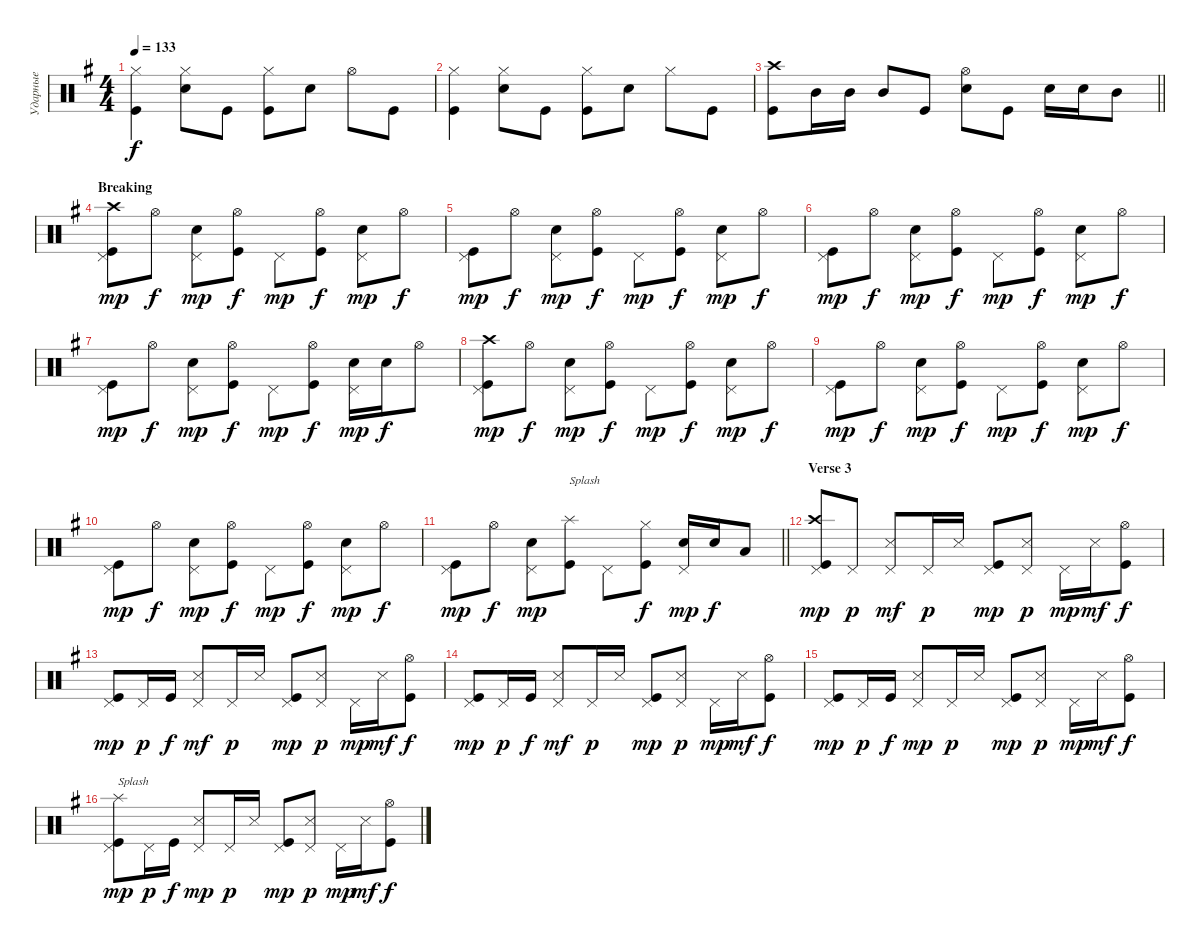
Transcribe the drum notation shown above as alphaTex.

\track ("Ударные" "Ударные") {instrument percussion}
\staff {score}
\articulation defaults
\ts (4 4)
\tempo 133
\clef neutral
\ks eminor
("Kick (hit)" "Hi-Hat (closed)").4{dy f} ("Snare (hit) 2" "Hi-Hat (closed)").8 "Kick (hit)".8 ("Kick (hit)" "Hi-Hat (closed)").8 "Snare (hit) 2".8 "Hi-Hat (open)".8 "Kick (hit)".8 |
("Kick (hit)" "Hi-Hat (closed)").4 ("Snare (hit) 2" "Hi-Hat (closed)").8 "Kick (hit)".8 ("Kick (hit)" "Hi-Hat (closed)").8 "Snare (hit) 2".8 "Hi-Hat (closed)".8 "Kick (hit)".8 |
\barLineRight lightlight
("Kick (hit)" "Crash high (hit)").8 "Mid Tom (hit)".16 "Mid Tom (hit)".16 "Mid Tom (hit)".8 "Kick (hit)".8 ("Snare (hit) 2" "Hi-Hat (open)").8 "Kick (hit)".8 "Snare (hit) 2".16 "Snare (hit) 2".16 "Mid Tom (hit)".8 |
\section ("" "Breaking")
("Pedal Hi-Hat (hit)" "Kick (hit)" "Crash high (hit)").8{dy mp} "Hi-Hat (open)".8{dy f} ("Pedal Hi-Hat (hit)" "Snare (hit) 2").8{dy mp} ("Hi-Hat (open)" "Kick (hit)").8{dy f} "Pedal Hi-Hat (hit)".8{dy mp} ("Hi-Hat (open)" "Kick (hit)").8{dy f} ("Pedal Hi-Hat (hit)" "Snare (hit) 2").8{dy mp} "Hi-Hat (open)".8{dy f} |
("Pedal Hi-Hat (hit)" "Kick (hit)").8{dy mp} "Hi-Hat (open)".8{dy f} ("Pedal Hi-Hat (hit)" "Snare (hit) 2").8{dy mp} ("Hi-Hat (open)" "Kick (hit)").8{dy f} "Pedal Hi-Hat (hit)".8{dy mp} ("Hi-Hat (open)" "Kick (hit)").8{dy f} ("Pedal Hi-Hat (hit)" "Snare (hit) 2").8{dy mp} "Hi-Hat (open)".8{dy f} |
("Pedal Hi-Hat (hit)" "Kick (hit)").8{dy mp} "Hi-Hat (open)".8{dy f} ("Pedal Hi-Hat (hit)" "Snare (hit) 2").8{dy mp} ("Hi-Hat (open)" "Kick (hit)").8{dy f} "Pedal Hi-Hat (hit)".8{dy mp} ("Hi-Hat (open)" "Kick (hit)").8{dy f} ("Pedal Hi-Hat (hit)" "Snare (hit) 2").8{dy mp} "Hi-Hat (open)".8{dy f} |
("Pedal Hi-Hat (hit)" "Kick (hit)").8{dy mp} "Hi-Hat (open)".8{dy f} ("Pedal Hi-Hat (hit)" "Snare (hit) 2").8{dy mp} ("Hi-Hat (open)" "Kick (hit)").8{dy f} "Pedal Hi-Hat (hit)".8{dy mp} ("Hi-Hat (open)" "Kick (hit)").8{dy f} ("Pedal Hi-Hat (hit)" "Snare (hit) 2").16{dy mp} "Snare (hit) 2".16{dy f} "Hi-Hat (open)".8 |
("Pedal Hi-Hat (hit)" "Kick (hit)" "Crash high (hit)").8{dy mp} "Hi-Hat (open)".8{dy f} ("Pedal Hi-Hat (hit)" "Snare (hit) 2").8{dy mp} ("Hi-Hat (open)" "Kick (hit)").8{dy f} "Pedal Hi-Hat (hit)".8{dy mp} ("Hi-Hat (open)" "Kick (hit)").8{dy f} ("Pedal Hi-Hat (hit)" "Snare (hit) 2").8{dy mp} "Hi-Hat (open)".8{dy f} |
("Pedal Hi-Hat (hit)" "Kick (hit)").8{dy mp} "Hi-Hat (open)".8{dy f} ("Pedal Hi-Hat (hit)" "Snare (hit) 2").8{dy mp} ("Hi-Hat (open)" "Kick (hit)").8{dy f} "Pedal Hi-Hat (hit)".8{dy mp} ("Hi-Hat (open)" "Kick (hit)").8{dy f} ("Pedal Hi-Hat (hit)" "Snare (hit) 2").8{dy mp} "Hi-Hat (open)".8{dy f} |
("Pedal Hi-Hat (hit)" "Kick (hit)").8{dy mp} "Hi-Hat (open)".8{dy f} ("Pedal Hi-Hat (hit)" "Snare (hit) 2").8{dy mp} ("Hi-Hat (open)" "Kick (hit)").8{dy f} "Pedal Hi-Hat (hit)".8{dy mp} ("Hi-Hat (open)" "Kick (hit)").8{dy f} ("Pedal Hi-Hat (hit)" "Snare (hit) 2").8{dy mp} "Hi-Hat (open)".8{dy f} |
\barLineRight lightlight
("Pedal Hi-Hat (hit)" "Kick (hit)").8{dy mp} "Hi-Hat (open)".8{dy f} ("Pedal Hi-Hat (hit)" "Snare (hit) 2").8{dy mp} ("Splash (hit)" "Kick (hit)").8{txt "Splash"} "Pedal Hi-Hat (hit)".8 ("Hi-Hat (closed)" "Kick (hit)").8{dy f} ("Pedal Hi-Hat (hit)" "Snare (hit) 2").16{dy mp} "Snare (hit) 2".16{dy f} "Low Tom (hit)".8 |
\section ("" "Verse 3")
("Crash high (hit)" "Kick (hit)" "Pedal Hi-Hat (hit)").8{dy mp} "Pedal Hi-Hat (hit)".8{dy p} ("Pedal Hi-Hat (hit)" "Snare (side stick) 3").8{dy mf} "Pedal Hi-Hat (hit)".16{dy p} "Snare (side stick) 3".16 ("Kick (hit)" "Pedal Hi-Hat (hit)").8{dy mp} ("Snare (side stick) 3" "Pedal Hi-Hat (hit)").8{dy p} "Pedal Hi-Hat (hit)".16{dy mp} "Snare (side stick) 3".16{dy mf} ("Kick (hit)" "Hi-Hat (open)").8{dy f} |
("Kick (hit)" "Pedal Hi-Hat (hit)").8{dy mp} "Pedal Hi-Hat (hit)".16{dy p} "Kick (hit)".16{dy f} ("Pedal Hi-Hat (hit)" "Snare (side stick) 3").8{dy mf} "Pedal Hi-Hat (hit)".16{dy p} "Snare (side stick) 3".16 ("Kick (hit)" "Pedal Hi-Hat (hit)").8{dy mp} ("Snare (side stick) 3" "Pedal Hi-Hat (hit)").8{dy p} "Pedal Hi-Hat (hit)".16{dy mp} "Snare (side stick) 3".16{dy mf} ("Kick (hit)" "Hi-Hat (open)").8{dy f} |
("Kick (hit)" "Pedal Hi-Hat (hit)").8{dy mp} "Pedal Hi-Hat (hit)".16{dy p} "Kick (hit)".16{dy f} ("Pedal Hi-Hat (hit)" "Snare (side stick) 3").8{dy mf} "Pedal Hi-Hat (hit)".16{dy p} "Snare (side stick) 3".16 ("Kick (hit)" "Pedal Hi-Hat (hit)").8{dy mp} ("Snare (side stick) 3" "Pedal Hi-Hat (hit)").8{dy p} "Pedal Hi-Hat (hit)".16{dy mp} "Snare (side stick) 3".16{dy mf} ("Kick (hit)" "Hi-Hat (open)").8{dy f} |
("Kick (hit)" "Pedal Hi-Hat (hit)").8{dy mp} "Pedal Hi-Hat (hit)".16{dy p} "Kick (hit)".16{dy f} ("Snare (side stick) 3" "Pedal Hi-Hat (hit)").8{dy mp} "Pedal Hi-Hat (hit)".16{dy p} "Snare (side stick) 3".16 ("Kick (hit)" "Pedal Hi-Hat (hit)").8{dy mp} ("Snare (side stick) 3" "Pedal Hi-Hat (hit)").8{dy p} "Pedal Hi-Hat (hit)".16{dy mp} "Snare (side stick) 3".16{dy mf} ("Kick (hit)" "Hi-Hat (open)").8{dy f} |
("Pedal Hi-Hat (hit)" "Splash (hit)" "Kick (hit)").8{txt "Splash" dy mp} "Pedal Hi-Hat (hit)".16{dy p} "Kick (hit)".16{dy f} ("Snare (side stick) 3" "Pedal Hi-Hat (hit)").8{dy mp} "Pedal Hi-Hat (hit)".16{dy p} "Snare (side stick) 3".16 ("Kick (hit)" "Pedal Hi-Hat (hit)").8{dy mp} ("Snare (side stick) 3" "Pedal Hi-Hat (hit)").8{dy p} "Pedal Hi-Hat (hit)".16{dy mp} "Snare (side stick) 3".16{dy mf} ("Kick (hit)" "Hi-Hat (open)").8{dy f}
